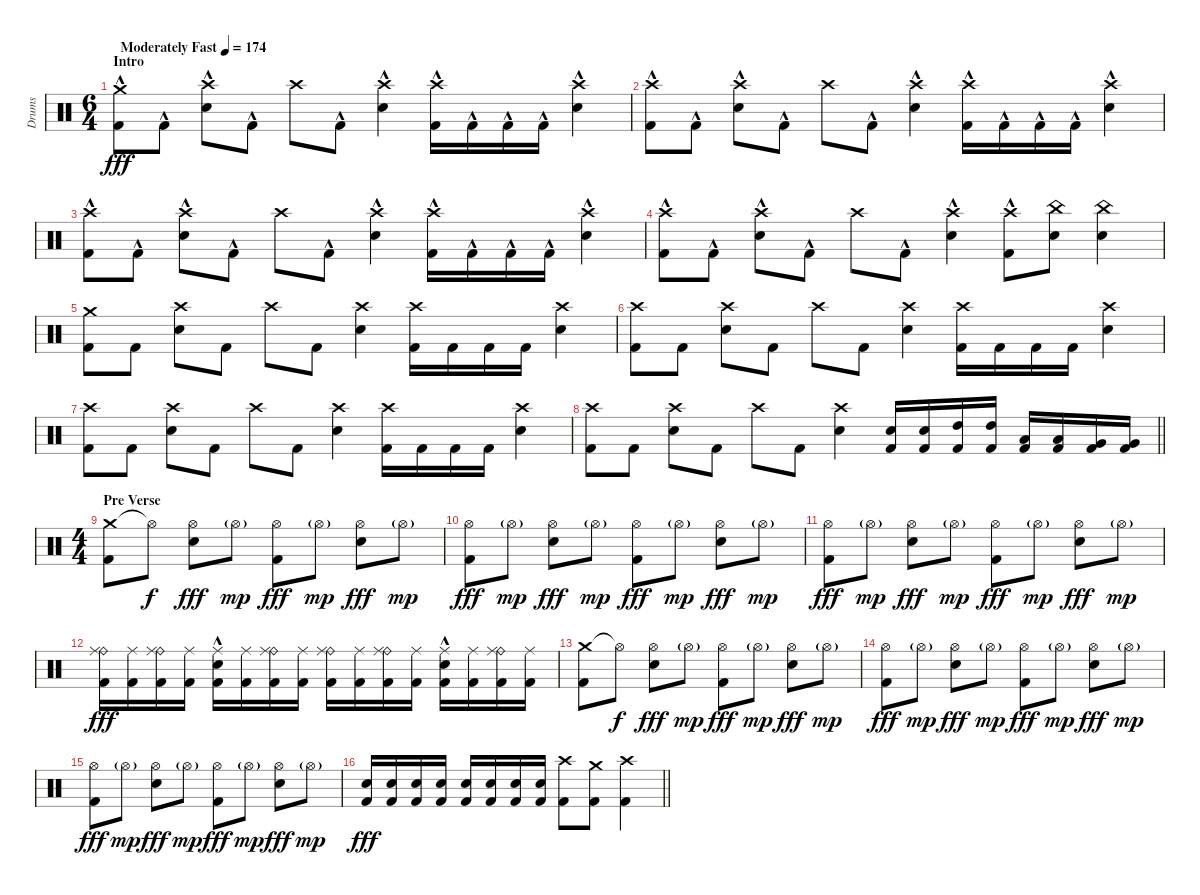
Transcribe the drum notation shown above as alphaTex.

\track ("Drums" "Drums") {instrument percussion}
\staff {score}
\articulation defaults
\ts (6 4)
\section ("" "Intro")
\tempo (174 "Moderately Fast")
\clef neutral
\ks c
("Crash medium (hit)" "Kick (hit) 2"{hac}).8{dy fff} "Kick (hit) 2"{hac}.8 ("Crash high (hit)" "Snare (hit) 2"{hac}).8 "Kick (hit) 2"{hac}.8 "Crash high (hit)".8 "Kick (hit) 2"{hac}.8 ("Crash high (hit)" "Snare (hit) 2"{hac}).4 ("Crash high (hit)" "Kick (hit) 2"{hac}).16 "Kick (hit) 2"{hac}.16 "Kick (hit) 2"{hac}.16 "Kick (hit) 2"{hac}.16 ("Crash high (hit)" "Snare (hit) 2"{hac}).4 |
("Crash high (hit)" "Kick (hit) 2"{hac}).8 "Kick (hit) 2"{hac}.8 ("Crash high (hit)" "Snare (hit) 2"{hac}).8 "Kick (hit) 2"{hac}.8 "Crash high (hit)".8 "Kick (hit) 2"{hac}.8 ("Crash high (hit)" "Snare (hit) 2"{hac}).4 ("Crash high (hit)" "Kick (hit) 2"{hac}).16 "Kick (hit) 2"{hac}.16 "Kick (hit) 2"{hac}.16 "Kick (hit) 2"{hac}.16 ("Crash high (hit)" "Snare (hit) 2"{hac}).4 |
("Crash high (hit)" "Kick (hit) 2"{hac}).8 "Kick (hit) 2"{hac}.8 ("Crash high (hit)" "Snare (hit) 2"{hac}).8 "Kick (hit) 2"{hac}.8 "Crash high (hit)".8 "Kick (hit) 2"{hac}.8 ("Crash high (hit)" "Snare (hit) 2"{hac}).4 ("Crash high (hit)" "Kick (hit) 2"{hac}).16 "Kick (hit) 2"{hac}.16 "Kick (hit) 2"{hac}.16 "Kick (hit) 2"{hac}.16 ("Crash high (hit)" "Snare (hit) 2"{hac}).4 |
("Crash high (hit)" "Kick (hit) 2"{hac}).8 "Kick (hit) 2"{hac}.8 ("Crash high (hit)" "Snare (hit) 2"{hac}).8 "Kick (hit) 2"{hac}.8 "Crash high (hit)".8 "Kick (hit) 2"{hac}.8 ("Crash high (hit)" "Snare (hit) 2"{hac}).4 ("Crash high (hit)" "Kick (hit) 2"{hac}).8 ("China (hit)" "Snare (hit) 2").8 ("China (hit)" "Snare (hit) 2").4 |
("Crash medium (hit)" "Kick (hit) 2").8 "Kick (hit) 2".8 ("Crash high (hit)" "Snare (hit) 2").8 "Kick (hit) 2".8 "Crash high (hit)".8 "Kick (hit) 2".8 ("Crash high (hit)" "Snare (hit) 2").4 ("Crash high (hit)" "Kick (hit) 2").16 "Kick (hit) 2".16 "Kick (hit) 2".16 "Kick (hit) 2".16 ("Crash high (hit)" "Snare (hit) 2").4 |
("Crash high (hit)" "Kick (hit) 2").8 "Kick (hit) 2".8 ("Crash high (hit)" "Snare (hit) 2").8 "Kick (hit) 2".8 "Crash high (hit)".8 "Kick (hit) 2".8 ("Crash high (hit)" "Snare (hit) 2").4 ("Crash high (hit)" "Kick (hit) 2").16 "Kick (hit) 2".16 "Kick (hit) 2".16 "Kick (hit) 2".16 ("Crash high (hit)" "Snare (hit) 2").4 |
("Crash high (hit)" "Kick (hit) 2").8 "Kick (hit) 2".8 ("Crash high (hit)" "Snare (hit) 2").8 "Kick (hit) 2".8 "Crash high (hit)".8 "Kick (hit) 2".8 ("Crash high (hit)" "Snare (hit) 2").4 ("Crash high (hit)" "Kick (hit) 2").16 "Kick (hit) 2".16 "Kick (hit) 2".16 "Kick (hit) 2".16 ("Crash high (hit)" "Snare (hit) 2").4 |
\barLineRight lightlight
("Crash high (hit)" "Kick (hit) 2").8 "Kick (hit) 2".8 ("Crash high (hit)" "Snare (hit) 2").8 "Kick (hit) 2".8 "Crash high (hit)".8 "Kick (hit) 2".8 ("Crash high (hit)" "Snare (hit) 2").4 ("Snare (hit) 2" "Kick (hit) 2").16 ("Snare (hit) 2" "Kick (hit) 2").16 ("High Tom (hit)" "Kick (hit) 2").16 ("High Tom (hit)" "Kick (hit) 2").16 ("Low Tom (hit)" "Kick (hit) 2").16 ("Low Tom (hit)" "Kick (hit) 2").16 ("Very Low Tom (hit)" "Kick (hit) 2").16 ("Very Low Tom (hit)" "Kick (hit) 2").16 |
\ts (4 4)
\section ("" "Pre Verse")
("Crash medium (hit)" "Kick (hit) 2").8 "Hi-Hat (open)"{t}.8{dy f} ("Hi-Hat (open)" "Snare (hit) 2").8{dy fff} "Hi-Hat (open)"{g}.8{dy mp} ("Hi-Hat (open)" "Kick (hit) 2").8{dy fff} "Hi-Hat (open)"{g}.8{dy mp} ("Hi-Hat (open)" "Snare (hit) 2").8{dy fff} "Hi-Hat (open)"{g}.8{dy mp} |
("Hi-Hat (open)" "Kick (hit) 2").8{dy fff} "Hi-Hat (open)"{g}.8{dy mp} ("Hi-Hat (open)" "Snare (hit) 2").8{dy fff} "Hi-Hat (open)"{g}.8{dy mp} ("Hi-Hat (open)" "Kick (hit) 2").8{dy fff} "Hi-Hat (open)"{g}.8{dy mp} ("Hi-Hat (open)" "Snare (hit) 2").8{dy fff} "Hi-Hat (open)"{g}.8{dy mp} |
("Hi-Hat (open)" "Kick (hit) 2").8{dy fff} "Hi-Hat (open)"{g}.8{dy mp} ("Hi-Hat (open)" "Snare (hit) 2").8{dy fff} "Hi-Hat (open)"{g}.8{dy mp} ("Hi-Hat (open)" "Kick (hit) 2").8{dy fff} "Hi-Hat (open)"{g}.8{dy mp} ("Hi-Hat (open)" "Snare (hit) 2").8{dy fff} "Hi-Hat (open)"{g}.8{dy mp} |
("Ride (bell)" "Ride (middle)" "Kick (hit) 2").16{dy fff} ("Ride (middle)" "Kick (hit) 2").16 ("Ride (bell)" "Ride (middle)" "Kick (hit) 2").16 ("Ride (middle)" "Kick (hit) 2").16 ("Ride (middle)" "Snare (hit) 2"{hac} "Kick (hit) 2").16 ("Ride (middle)" "Kick (hit) 2").16 ("Ride (bell)" "Ride (middle)" "Kick (hit) 2").16 ("Ride (middle)" "Kick (hit) 2").16 ("Ride (bell)" "Ride (middle)" "Kick (hit) 2").16 ("Ride (middle)" "Kick (hit) 2").16 ("Ride (bell)" "Ride (middle)" "Kick (hit) 2").16 ("Ride (middle)" "Kick (hit) 2").16 ("Ride (middle)" "Snare (hit) 2"{hac} "Kick (hit) 2").16 ("Ride (middle)" "Kick (hit) 2").16 ("Ride (bell)" "Ride (middle)" "Kick (hit) 2").16 ("Ride (middle)" "Kick (hit) 2").16 |
("Crash medium (hit)" "Kick (hit) 2").8 "Hi-Hat (open)"{t}.8{dy f} ("Hi-Hat (open)" "Snare (hit) 2").8{dy fff} "Hi-Hat (open)"{g}.8{dy mp} ("Hi-Hat (open)" "Kick (hit) 2").8{dy fff} "Hi-Hat (open)"{g}.8{dy mp} ("Hi-Hat (open)" "Snare (hit) 2").8{dy fff} "Hi-Hat (open)"{g}.8{dy mp} |
("Hi-Hat (open)" "Kick (hit) 2").8{dy fff} "Hi-Hat (open)"{g}.8{dy mp} ("Hi-Hat (open)" "Snare (hit) 2").8{dy fff} "Hi-Hat (open)"{g}.8{dy mp} ("Hi-Hat (open)" "Kick (hit) 2").8{dy fff} "Hi-Hat (open)"{g}.8{dy mp} ("Hi-Hat (open)" "Snare (hit) 2").8{dy fff} "Hi-Hat (open)"{g}.8{dy mp} |
("Hi-Hat (open)" "Kick (hit) 2").8{dy fff} "Hi-Hat (open)"{g}.8{dy mp} ("Hi-Hat (open)" "Snare (hit) 2").8{dy fff} "Hi-Hat (open)"{g}.8{dy mp} ("Hi-Hat (open)" "Kick (hit) 2").8{dy fff} "Hi-Hat (open)"{g}.8{dy mp} ("Hi-Hat (open)" "Snare (hit) 2").8{dy fff} "Hi-Hat (open)"{g}.8{dy mp} |
\barLineRight lightlight
("Snare (hit) 2" "Kick (hit) 2").16{dy fff} ("Snare (hit) 2" "Kick (hit) 2").16 ("Snare (hit) 2" "Kick (hit) 2").16 ("Snare (hit) 2" "Kick (hit) 2").16 ("Snare (hit) 2" "Kick (hit) 2").16 ("Snare (hit) 2" "Kick (hit) 2").16 ("Snare (hit) 2" "Kick (hit) 2").16 ("Snare (hit) 2" "Kick (hit) 2").16 ("Crash high (hit)" "Kick (hit) 2").8 ("Crash medium (hit)" "Kick (hit) 2").8 ("Crash high (hit)" "Kick (hit) 2").4
